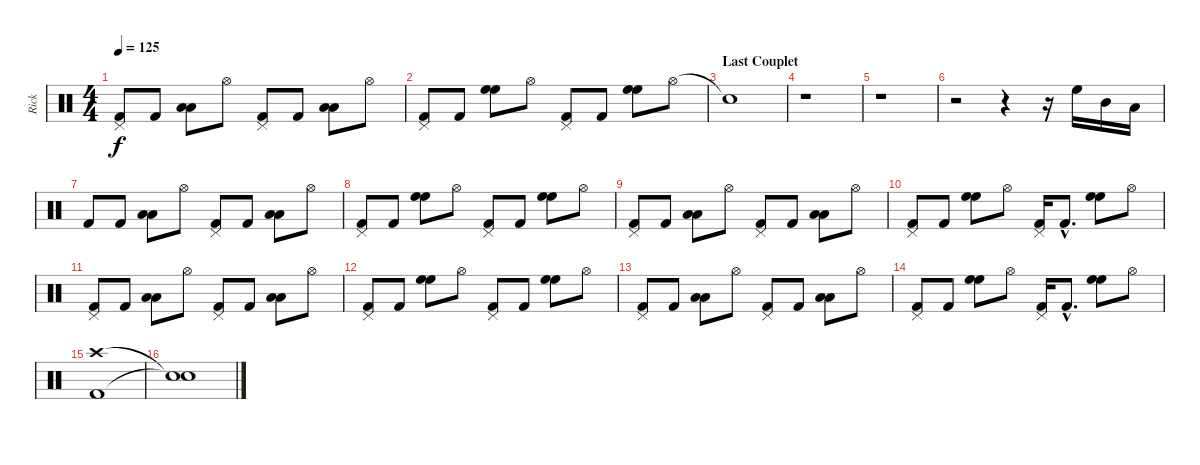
\track ("Rick" "Rick") {instrument percussion}
\staff {score}
\articulation defaults
\ts (4 4)
\tempo 125
\clef neutral
\ks c
("Pedal Hi-Hat (hit)" "Kick (hit) 2").8{dy f} "Kick (hit) 2".8 ("Low Tom (hit)" "Low Tom (hit)").8 "Hi-Hat (open)".8 ("Pedal Hi-Hat (hit)" "Kick (hit) 2").8 "Kick (hit) 2".8 ("Low Tom (hit)" "Low Tom (hit)").8 "Hi-Hat (open)".8 |
("Pedal Hi-Hat (hit)" "Kick (hit) 2").8 "Kick (hit) 2".8 ("High Floor Tom (hit)" "High Floor Tom (hit)").8 "Hi-Hat (open)".8 ("Pedal Hi-Hat (hit)" "Kick (hit) 2").8 "Kick (hit) 2".8 ("High Floor Tom (hit)" "High Floor Tom (hit)").8 "Hi-Hat (open)".8 |
\section ("" "Last Couplet")
"Snare (hit)"{t}.1 |
r.1 |
r.1 |
r.2 r.4 r.16 "High Floor Tom (hit)".16 "Mid Tom (hit)".16 "Low Floor Tom (hit)".16 |
"Kick (hit) 2".8 "Kick (hit) 2".8 ("Low Tom (hit)" "Low Tom (hit)").8 "Hi-Hat (open)".8 ("Pedal Hi-Hat (hit)" "Kick (hit) 2").8 "Kick (hit) 2".8 ("Low Tom (hit)" "Low Tom (hit)").8 "Hi-Hat (open)".8 |
("Pedal Hi-Hat (hit)" "Kick (hit) 2").8 "Kick (hit) 2".8 ("High Floor Tom (hit)" "High Floor Tom (hit)").8 "Hi-Hat (open)".8 ("Pedal Hi-Hat (hit)" "Kick (hit) 2").8 "Kick (hit) 2".8 ("High Floor Tom (hit)" "High Floor Tom (hit)").8 "Hi-Hat (open)".8 |
("Pedal Hi-Hat (hit)" "Kick (hit) 2").8 "Kick (hit) 2".8 ("Low Tom (hit)" "Low Tom (hit)").8 "Hi-Hat (open)".8 ("Pedal Hi-Hat (hit)" "Kick (hit) 2").8 "Kick (hit) 2".8 ("Low Tom (hit)" "Low Tom (hit)").8 "Hi-Hat (open)".8 |
("Pedal Hi-Hat (hit)" "Kick (hit) 2").8 "Kick (hit) 2".8 ("High Floor Tom (hit)" "High Floor Tom (hit)").8 "Hi-Hat (open)".8 ("Pedal Hi-Hat (hit)" "Kick (hit) 2").16 "Kick (hit) 2"{hac}.8{d} ("High Floor Tom (hit)" "High Floor Tom (hit)").8 "Hi-Hat (open)".8 |
("Pedal Hi-Hat (hit)" "Kick (hit) 2").8 "Kick (hit) 2".8 ("Low Tom (hit)" "Low Tom (hit)").8 "Hi-Hat (open)".8 ("Pedal Hi-Hat (hit)" "Kick (hit) 2").8 "Kick (hit) 2".8 ("Low Tom (hit)" "Low Tom (hit)").8 "Hi-Hat (open)".8 |
("Pedal Hi-Hat (hit)" "Kick (hit) 2").8 "Kick (hit) 2".8 ("High Floor Tom (hit)" "High Floor Tom (hit)").8 "Hi-Hat (open)".8 ("Pedal Hi-Hat (hit)" "Kick (hit) 2").8 "Kick (hit) 2".8 ("High Floor Tom (hit)" "High Floor Tom (hit)").8 "Hi-Hat (open)".8 |
("Pedal Hi-Hat (hit)" "Kick (hit) 2").8 "Kick (hit) 2".8 ("Low Tom (hit)" "Low Tom (hit)").8 "Hi-Hat (open)".8 ("Pedal Hi-Hat (hit)" "Kick (hit) 2").8 "Kick (hit) 2".8 ("Low Tom (hit)" "Low Tom (hit)").8 "Hi-Hat (open)".8 |
("Pedal Hi-Hat (hit)" "Kick (hit) 2").8 "Kick (hit) 2".8 ("High Floor Tom (hit)" "High Floor Tom (hit)").8 "Hi-Hat (open)".8 ("Pedal Hi-Hat (hit)" "Kick (hit) 2").16 "Kick (hit) 2"{hac}.8{d} ("High Floor Tom (hit)" "High Floor Tom (hit)").8 "Hi-Hat (open)".8 |
("Crash high (hit)" "Kick (hit) 2").1 |
("Snare (hit)"{t} "Snare (hit)"{t}).1
